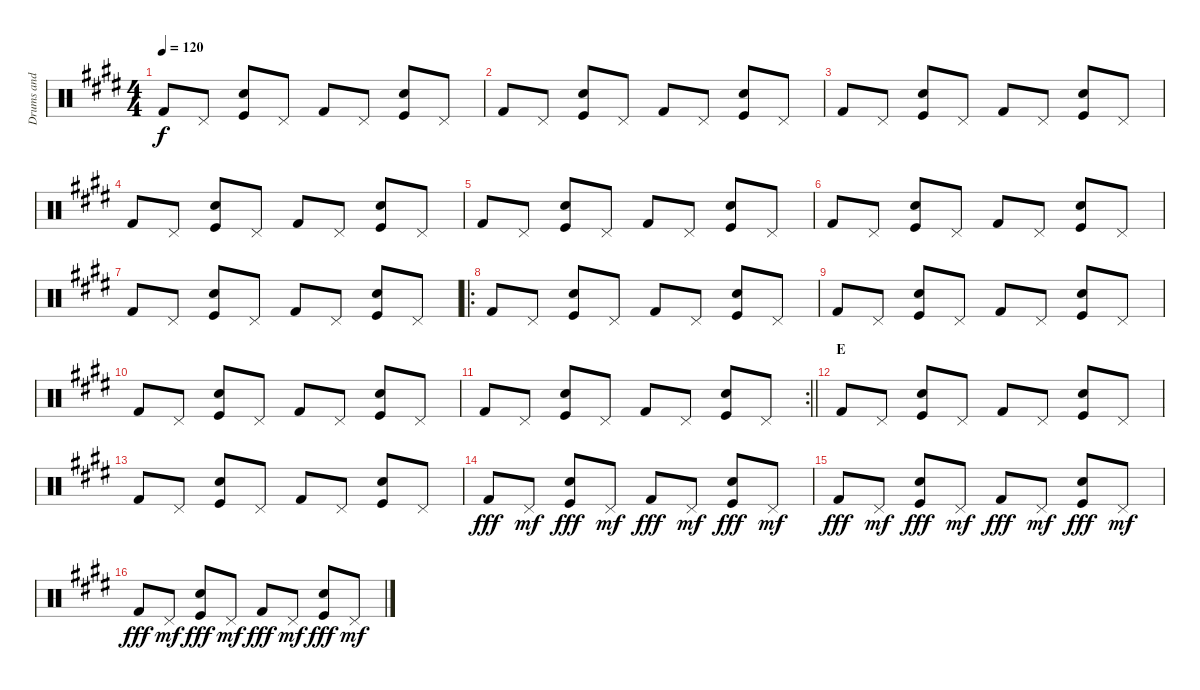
\track ("Drums and clapping" "Drums and ") {instrument percussion}
\staff {score}
\articulation defaults
\ts (4 4)
\tempo 120
\clef neutral
\ks e "Kick (hit) 2".8{dy f} "Pedal Hi-Hat (hit)".8
("Kick (hit)" "Hand Clap (hit)").8 "Pedal Hi-Hat (hit)".8 "Kick (hit) 2".8 "Pedal Hi-Hat (hit)".8 ("Kick (hit)" "Hand Clap (hit)").8 "Pedal Hi-Hat (hit)".8 |
"Kick (hit) 2".8 "Pedal Hi-Hat (hit)".8 ("Kick (hit)" "Hand Clap (hit)").8 "Pedal Hi-Hat (hit)".8 "Kick (hit) 2".8 "Pedal Hi-Hat (hit)".8 ("Kick (hit)" "Hand Clap (hit)").8 "Pedal Hi-Hat (hit)".8 |
"Kick (hit) 2".8 "Pedal Hi-Hat (hit)".8 ("Kick (hit)" "Hand Clap (hit)").8 "Pedal Hi-Hat (hit)".8 "Kick (hit) 2".8 "Pedal Hi-Hat (hit)".8 ("Kick (hit)" "Hand Clap (hit)").8 "Pedal Hi-Hat (hit)".8 |
"Kick (hit) 2".8 "Pedal Hi-Hat (hit)".8 ("Kick (hit)" "Hand Clap (hit)").8 "Pedal Hi-Hat (hit)".8 "Kick (hit) 2".8 "Pedal Hi-Hat (hit)".8 ("Kick (hit)" "Hand Clap (hit)").8 "Pedal Hi-Hat (hit)".8 |
"Kick (hit) 2".8 "Pedal Hi-Hat (hit)".8 ("Kick (hit)" "Hand Clap (hit)").8 "Pedal Hi-Hat (hit)".8 "Kick (hit) 2".8 "Pedal Hi-Hat (hit)".8 ("Kick (hit)" "Hand Clap (hit)").8 "Pedal Hi-Hat (hit)".8 |
"Kick (hit) 2".8 "Pedal Hi-Hat (hit)".8 ("Kick (hit)" "Hand Clap (hit)").8 "Pedal Hi-Hat (hit)".8 "Kick (hit) 2".8 "Pedal Hi-Hat (hit)".8 ("Kick (hit)" "Hand Clap (hit)").8 "Pedal Hi-Hat (hit)".8 |
"Kick (hit) 2".8 "Pedal Hi-Hat (hit)".8 ("Kick (hit)" "Hand Clap (hit)").8 "Pedal Hi-Hat (hit)".8 "Kick (hit) 2".8 "Pedal Hi-Hat (hit)".8 ("Kick (hit)" "Hand Clap (hit)").8 "Pedal Hi-Hat (hit)".8 |
\ro "Kick (hit) 2".8 "Pedal Hi-Hat (hit)".8
("Kick (hit)" "Hand Clap (hit)").8 "Pedal Hi-Hat (hit)".8 "Kick (hit) 2".8 "Pedal Hi-Hat (hit)".8 ("Kick (hit)" "Hand Clap (hit)").8 "Pedal Hi-Hat (hit)".8 |
"Kick (hit) 2".8 "Pedal Hi-Hat (hit)".8 ("Kick (hit)" "Hand Clap (hit)").8 "Pedal Hi-Hat (hit)".8 "Kick (hit) 2".8 "Pedal Hi-Hat (hit)".8 ("Kick (hit)" "Hand Clap (hit)").8 "Pedal Hi-Hat (hit)".8 |
"Kick (hit) 2".8 "Pedal Hi-Hat (hit)".8 ("Kick (hit)" "Hand Clap (hit)").8 "Pedal Hi-Hat (hit)".8 "Kick (hit) 2".8 "Pedal Hi-Hat (hit)".8 ("Kick (hit)" "Hand Clap (hit)").8 "Pedal Hi-Hat (hit)".8 |
\rc 2
\barLineRight lightlight "Kick (hit) 2".8 "Pedal Hi-Hat (hit)".8
("Kick (hit)" "Hand Clap (hit)").8 "Pedal Hi-Hat (hit)".8 "Kick (hit) 2".8 "Pedal Hi-Hat (hit)".8 ("Kick (hit)" "Hand Clap (hit)").8 "Pedal Hi-Hat (hit)".8 |
\section ("" "E")
"Kick (hit) 2".8 "Pedal Hi-Hat (hit)".8 ("Kick (hit)" "Hand Clap (hit)").8 "Pedal Hi-Hat (hit)".8 "Kick (hit) 2".8 "Pedal Hi-Hat (hit)".8 ("Kick (hit)" "Hand Clap (hit)").8 "Pedal Hi-Hat (hit)".8 |
"Kick (hit) 2".8 "Pedal Hi-Hat (hit)".8 ("Kick (hit)" "Hand Clap (hit)").8 "Pedal Hi-Hat (hit)".8 "Kick (hit) 2".8 "Pedal Hi-Hat (hit)".8 ("Kick (hit)" "Hand Clap (hit)").8 "Pedal Hi-Hat (hit)".8 |
"Kick (hit) 2".8{dy fff} "Pedal Hi-Hat (hit)".8{dy mf} ("Kick (hit)" "Hand Clap (hit)").8{dy fff} "Pedal Hi-Hat (hit)".8{dy mf} "Kick (hit) 2".8{dy fff} "Pedal Hi-Hat (hit)".8{dy mf} ("Kick (hit)" "Hand Clap (hit)").8{dy fff} "Pedal Hi-Hat (hit)".8{dy mf} |
"Kick (hit) 2".8{dy fff} "Pedal Hi-Hat (hit)".8{dy mf} ("Kick (hit)" "Hand Clap (hit)").8{dy fff} "Pedal Hi-Hat (hit)".8{dy mf} "Kick (hit) 2".8{dy fff} "Pedal Hi-Hat (hit)".8{dy mf} ("Kick (hit)" "Hand Clap (hit)").8{dy fff} "Pedal Hi-Hat (hit)".8{dy mf} |
"Kick (hit) 2".8{dy fff} "Pedal Hi-Hat (hit)".8{dy mf} ("Kick (hit)" "Hand Clap (hit)").8{dy fff} "Pedal Hi-Hat (hit)".8{dy mf} "Kick (hit) 2".8{dy fff} "Pedal Hi-Hat (hit)".8{dy mf} ("Kick (hit)" "Hand Clap (hit)").8{dy fff} "Pedal Hi-Hat (hit)".8{dy mf}
